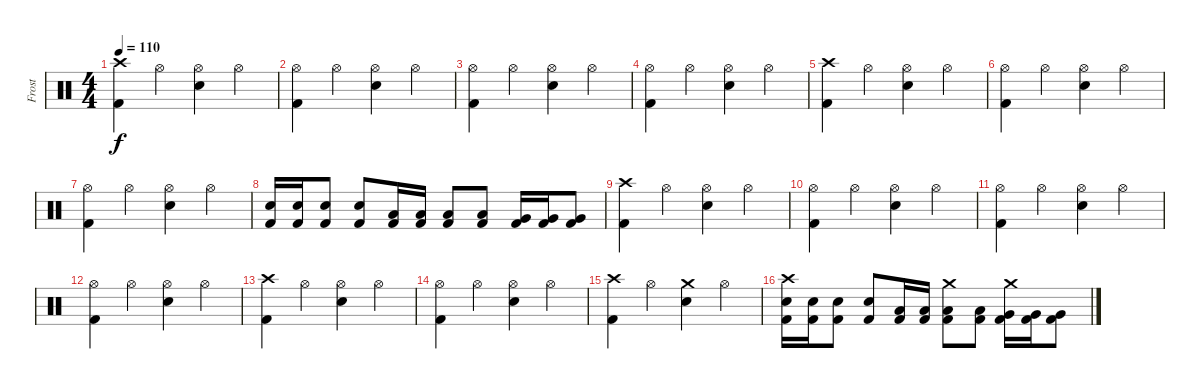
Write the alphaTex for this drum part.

\track ("Frost" "Frost") {instrument percussion}
\staff {score}
\articulation defaults
\ts (4 4)
\tempo 110
\clef neutral
\ks c
("Crash high (hit)" "Kick (hit) 2").4{dy f} "Hi-Hat (open)".4 ("Hi-Hat (open)" "Snare (hit) 2").4 "Hi-Hat (open)".4 |
("Hi-Hat (open)" "Kick (hit) 2").4 "Hi-Hat (open)".4 ("Hi-Hat (open)" "Snare (hit) 2").4 "Hi-Hat (open)".4 |
("Hi-Hat (open)" "Kick (hit) 2").4 "Hi-Hat (open)".4 ("Hi-Hat (open)" "Snare (hit) 2").4 "Hi-Hat (open)".4 |
("Hi-Hat (open)" "Kick (hit) 2").4 "Hi-Hat (open)".4 ("Hi-Hat (open)" "Snare (hit) 2").4 "Hi-Hat (open)".4 |
("Crash high (hit)" "Kick (hit) 2").4 "Hi-Hat (open)".4 ("Hi-Hat (open)" "Snare (hit) 2").4 "Hi-Hat (open)".4 |
("Hi-Hat (open)" "Kick (hit) 2").4 "Hi-Hat (open)".4 ("Hi-Hat (open)" "Snare (hit) 2").4 "Hi-Hat (open)".4 |
("Hi-Hat (open)" "Kick (hit) 2").4 "Hi-Hat (open)".4 ("Hi-Hat (open)" "Snare (hit) 2").4 "Hi-Hat (open)".4 |
("Snare (hit) 2" "Kick (hit) 2").16 ("Snare (hit) 2" "Kick (hit) 2").16 ("Snare (hit) 2" "Kick (hit) 2").8 ("Snare (hit) 2" "Kick (hit) 2").8 ("Low Tom (hit)" "Kick (hit) 2").16 ("Low Tom (hit)" "Kick (hit) 2").16 ("Low Tom (hit)" "Kick (hit) 2").8 ("Low Tom (hit)" "Kick (hit) 2").8 ("Very Low Tom (hit)" "Kick (hit) 2").16 ("Very Low Tom (hit)" "Kick (hit) 2").16 ("Very Low Tom (hit)" "Kick (hit) 2").8 |
("Crash high (hit)" "Kick (hit) 2").4 "Hi-Hat (open)".4 ("Hi-Hat (open)" "Snare (hit) 2").4 "Hi-Hat (open)".4 |
("Hi-Hat (open)" "Kick (hit) 2").4 "Hi-Hat (open)".4 ("Hi-Hat (open)" "Snare (hit) 2").4 "Hi-Hat (open)".4 |
("Hi-Hat (open)" "Kick (hit) 2").4 "Hi-Hat (open)".4 ("Hi-Hat (open)" "Snare (hit) 2").4 "Hi-Hat (open)".4 |
("Hi-Hat (open)" "Kick (hit) 2").4 "Hi-Hat (open)".4 ("Hi-Hat (open)" "Snare (hit) 2").4 "Hi-Hat (open)".4 |
("Crash high (hit)" "Kick (hit) 2").4 "Hi-Hat (open)".4 ("Hi-Hat (open)" "Snare (hit) 2").4 "Hi-Hat (open)".4 |
("Hi-Hat (open)" "Kick (hit) 2").4 "Hi-Hat (open)".4 ("Hi-Hat (open)" "Snare (hit) 2").4 "Hi-Hat (open)".4 |
("Crash high (hit)" "Kick (hit) 2").4 "Hi-Hat (open)".4 ("Crash medium (hit)" "Snare (hit) 2").4 "Hi-Hat (open)".4 |
("Crash high (hit)" "Snare (hit) 2" "Kick (hit) 2").16 ("Snare (hit) 2" "Kick (hit) 2").16 ("Snare (hit) 2" "Kick (hit) 2").8 ("Snare (hit) 2" "Kick (hit) 2").8 ("Low Tom (hit)" "Kick (hit) 2").16 ("Low Tom (hit)" "Kick (hit) 2").16 ("Crash medium (hit)" "Low Tom (hit)" "Kick (hit) 2").8 ("Low Tom (hit)" "Kick (hit) 2").8 ("Crash medium (hit)" "Very Low Tom (hit)" "Kick (hit) 2").16 ("Very Low Tom (hit)" "Kick (hit) 2").16 ("Very Low Tom (hit)" "Kick (hit) 2").8
